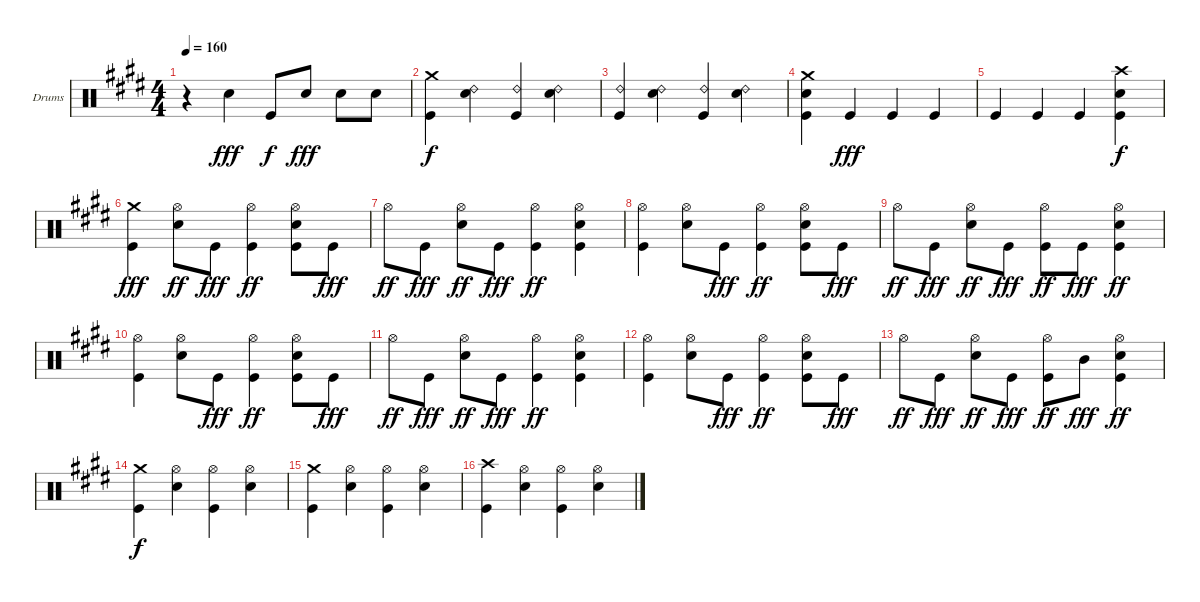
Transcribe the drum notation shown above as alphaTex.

\bracketExtendMode groupsimilarinstruments
\firstSystemTrackNameOrientation horizontal
\otherSystemsTrackNameOrientation horizontal
\track ("Drumkit" "Drums") {instrument percussion}
\staff {score}
\articulation defaults
\ts (4 4)
\tempo 160
\clef neutral
\ks e
r.4{dy fff} "Snare (hit) 2".4 "Kick (hit)".8{dy f} "Snare (hit) 2".8{dy fff} "Snare (hit) 2".8 "Snare (hit) 2".8 |
("Crash medium (hit)" "Kick (hit)").4{dy f} ("Ride (bell) 2" "Snare (hit) 2").4 ("Ride (bell) 2" "Kick (hit)").4 ("Ride (bell) 2" "Snare (hit) 2").4 |
("Ride (bell) 2" "Kick (hit)").4 ("Ride (bell) 2" "Snare (hit) 2").4 ("Ride (bell) 2" "Kick (hit)").4 ("Ride (bell) 2" "Snare (hit) 2").4 |
("Crash medium (hit)" "Snare (hit) 2" "Kick (hit)").4 "Kick (hit)".4{dy fff} "Kick (hit)".4 "Kick (hit)".4 |
"Kick (hit)".4 "Kick (hit)".4 "Kick (hit)".4 ("Crash high (hit)" "Snare (hit) 2" "Kick (hit)").4{dy f} |
("Crash medium (hit)" "Kick (hit)").4{dy fff} ("Hi-Hat (open)" "Snare (hit) 2").8{dy ff} "Kick (hit)".8{dy fff} ("Hi-Hat (open)" "Kick (hit)").4{dy ff} ("Hi-Hat (open)" "Snare (hit) 2" "Kick (hit)").8 "Kick (hit)".8{dy fff} |
"Hi-Hat (open)".8{dy ff} "Kick (hit)".8{dy fff} ("Hi-Hat (open)" "Snare (hit) 2").8{dy ff} "Kick (hit)".8{dy fff} ("Hi-Hat (open)" "Kick (hit)").4{dy ff} ("Hi-Hat (open)" "Snare (hit) 2" "Kick (hit)").4 |
("Hi-Hat (open)" "Kick (hit)").4 ("Hi-Hat (open)" "Snare (hit) 2").8 "Kick (hit)".8{dy fff} ("Hi-Hat (open)" "Kick (hit)").4{dy ff} ("Hi-Hat (open)" "Snare (hit) 2" "Kick (hit)").8 "Kick (hit)".8{dy fff} |
"Hi-Hat (open)".8{dy ff} "Kick (hit)".8{dy fff} ("Hi-Hat (open)" "Snare (hit) 2").8{dy ff} "Kick (hit)".8{dy fff} ("Hi-Hat (open)" "Kick (hit)").8{dy ff} "Kick (hit)".8{dy fff} ("Hi-Hat (open)" "Snare (hit) 2" "Kick (hit)").4{dy ff} |
("Hi-Hat (open)" "Kick (hit)").4 ("Hi-Hat (open)" "Snare (hit) 2").8 "Kick (hit)".8{dy fff} ("Hi-Hat (open)" "Kick (hit)").4{dy ff} ("Hi-Hat (open)" "Snare (hit) 2" "Kick (hit)").8 "Kick (hit)".8{dy fff} |
"Hi-Hat (open)".8{dy ff} "Kick (hit)".8{dy fff} ("Hi-Hat (open)" "Snare (hit) 2").8{dy ff} "Kick (hit)".8{dy fff} ("Hi-Hat (open)" "Kick (hit)").4{dy ff} ("Hi-Hat (open)" "Snare (hit) 2" "Kick (hit)").4 |
("Hi-Hat (open)" "Kick (hit)").4 ("Hi-Hat (open)" "Snare (hit) 2").8 "Kick (hit)".8{dy fff} ("Hi-Hat (open)" "Kick (hit)").4{dy ff} ("Hi-Hat (open)" "Snare (hit) 2" "Kick (hit)").8 "Kick (hit)".8{dy fff} |
"Hi-Hat (open)".8{dy ff} "Kick (hit)".8{dy fff} ("Hi-Hat (open)" "Snare (hit) 2").8{dy ff} "Kick (hit)".8{dy fff} ("Hi-Hat (open)" "Kick (hit)").8{dy ff} "Mid Tom (hit)".8{dy fff} ("Hi-Hat (open)" "Snare (hit) 2" "Kick (hit)").4{dy ff} |
("Crash medium (hit)" "Kick (hit)").4{dy f} ("Hi-Hat (open)" "Snare (hit) 2").4 ("Hi-Hat (open)" "Kick (hit)").4 ("Hi-Hat (open)" "Snare (hit) 2").4 |
("Crash medium (hit)" "Kick (hit)").4 ("Hi-Hat (open)" "Snare (hit) 2").4 ("Hi-Hat (open)" "Kick (hit)").4 ("Hi-Hat (open)" "Snare (hit) 2").4 |
("Crash high (hit)" "Kick (hit)").4 ("Hi-Hat (open)" "Snare (hit) 2").4 ("Hi-Hat (open)" "Kick (hit)").4 ("Hi-Hat (open)" "Snare (hit) 2").4
